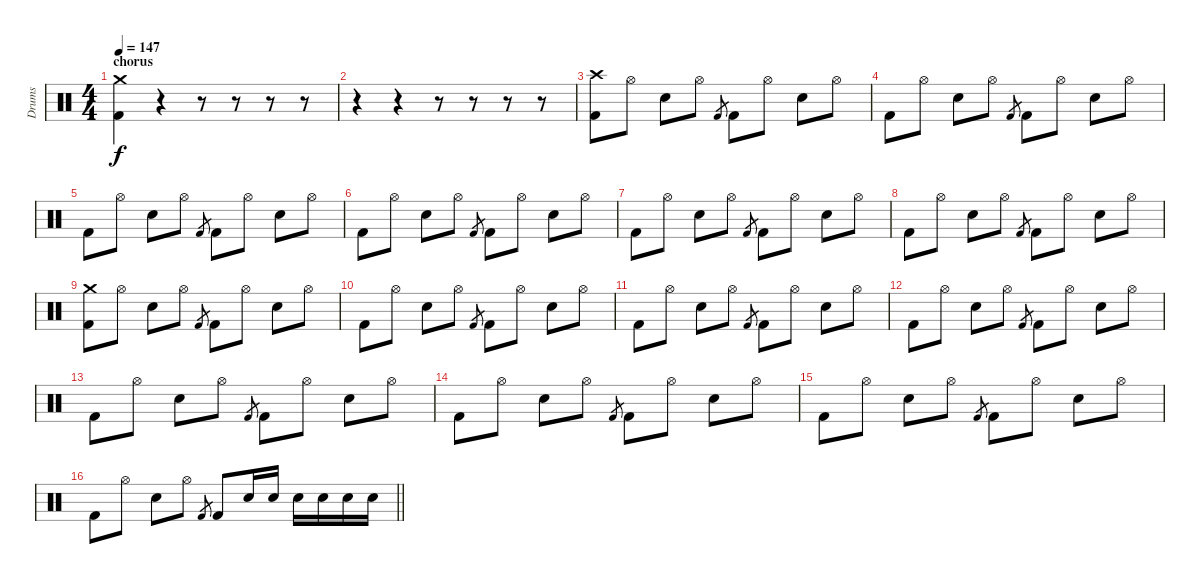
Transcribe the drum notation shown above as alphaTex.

\track ("Drums" "Drums") {instrument percussion}
\staff {score}
\articulation defaults
\ts (4 4)
\section ("" "chorus")
\tempo 147
\clef neutral
\ks c
("Crash medium (hit)" "Kick (hit) 2").4{dy f} r.4 r.8 r.8 r.8 r.8 |
r.4 r.4 r.8 r.8 r.8 r.8 |
("Crash high (hit)" "Kick (hit) 2").8 "Hi-Hat (open)".8 "Electric Snare (hit)".8 "Hi-Hat (open)".8 "Kick (hit) 2".8{gr} "Kick (hit) 2".8 "Hi-Hat (open)".8 "Electric Snare (hit)".8 "Hi-Hat (open)".8 |
"Kick (hit) 2".8 "Hi-Hat (open)".8 "Electric Snare (hit)".8 "Hi-Hat (open)".8 "Kick (hit) 2".8{gr} "Kick (hit) 2".8 "Hi-Hat (open)".8 "Electric Snare (hit)".8 "Hi-Hat (open)".8 |
"Kick (hit) 2".8 "Hi-Hat (open)".8 "Electric Snare (hit)".8 "Hi-Hat (open)".8 "Kick (hit) 2".8{gr} "Kick (hit) 2".8 "Hi-Hat (open)".8 "Electric Snare (hit)".8 "Hi-Hat (open)".8 |
"Kick (hit) 2".8 "Hi-Hat (open)".8 "Electric Snare (hit)".8 "Hi-Hat (open)".8 "Kick (hit) 2".8{gr} "Kick (hit) 2".8 "Hi-Hat (open)".8 "Electric Snare (hit)".8 "Hi-Hat (open)".8 |
"Kick (hit) 2".8 "Hi-Hat (open)".8 "Electric Snare (hit)".8 "Hi-Hat (open)".8 "Kick (hit) 2".8{gr} "Kick (hit) 2".8 "Hi-Hat (open)".8 "Electric Snare (hit)".8 "Hi-Hat (open)".8 |
"Kick (hit) 2".8 "Hi-Hat (open)".8 "Electric Snare (hit)".8 "Hi-Hat (open)".8 "Kick (hit) 2".8{gr} "Kick (hit) 2".8 "Hi-Hat (open)".8 "Electric Snare (hit)".8 "Hi-Hat (open)".8 |
("Crash medium (hit)" "Kick (hit) 2").8 "Hi-Hat (open)".8 "Electric Snare (hit)".8 "Hi-Hat (open)".8 "Kick (hit) 2".8{gr} "Kick (hit) 2".8 "Hi-Hat (open)".8 "Electric Snare (hit)".8 "Hi-Hat (open)".8 |
"Kick (hit) 2".8 "Hi-Hat (open)".8 "Electric Snare (hit)".8 "Hi-Hat (open)".8 "Kick (hit) 2".8{gr} "Kick (hit) 2".8 "Hi-Hat (open)".8 "Electric Snare (hit)".8 "Hi-Hat (open)".8 |
"Kick (hit) 2".8 "Hi-Hat (open)".8 "Electric Snare (hit)".8 "Hi-Hat (open)".8 "Kick (hit) 2".8{gr} "Kick (hit) 2".8 "Hi-Hat (open)".8 "Electric Snare (hit)".8 "Hi-Hat (open)".8 |
"Kick (hit) 2".8 "Hi-Hat (open)".8 "Electric Snare (hit)".8 "Hi-Hat (open)".8 "Kick (hit) 2".8{gr} "Kick (hit) 2".8 "Hi-Hat (open)".8 "Electric Snare (hit)".8 "Hi-Hat (open)".8 |
"Kick (hit) 2".8 "Hi-Hat (open)".8 "Electric Snare (hit)".8 "Hi-Hat (open)".8 "Kick (hit) 2".8{gr} "Kick (hit) 2".8 "Hi-Hat (open)".8 "Electric Snare (hit)".8 "Hi-Hat (open)".8 |
"Kick (hit) 2".8 "Hi-Hat (open)".8 "Electric Snare (hit)".8 "Hi-Hat (open)".8 "Kick (hit) 2".8{gr} "Kick (hit) 2".8 "Hi-Hat (open)".8 "Electric Snare (hit)".8 "Hi-Hat (open)".8 |
"Kick (hit) 2".8 "Hi-Hat (open)".8 "Electric Snare (hit)".8 "Hi-Hat (open)".8 "Kick (hit) 2".8{gr} "Kick (hit) 2".8 "Hi-Hat (open)".8 "Electric Snare (hit)".8 "Hi-Hat (open)".8 |
\barLineRight lightlight "Kick (hit) 2".8 "Hi-Hat (open)".8 "Electric Snare (hit)".8 "Hi-Hat (open)".8 "Kick (hit) 2".8{gr} "Kick (hit) 2".8 "Electric Snare (hit)".16 "Electric Snare (hit)".16 "Electric Snare (hit)".16 "Electric Snare (hit)".16 "Electric Snare (hit)".16 "Electric Snare (hit)".16
